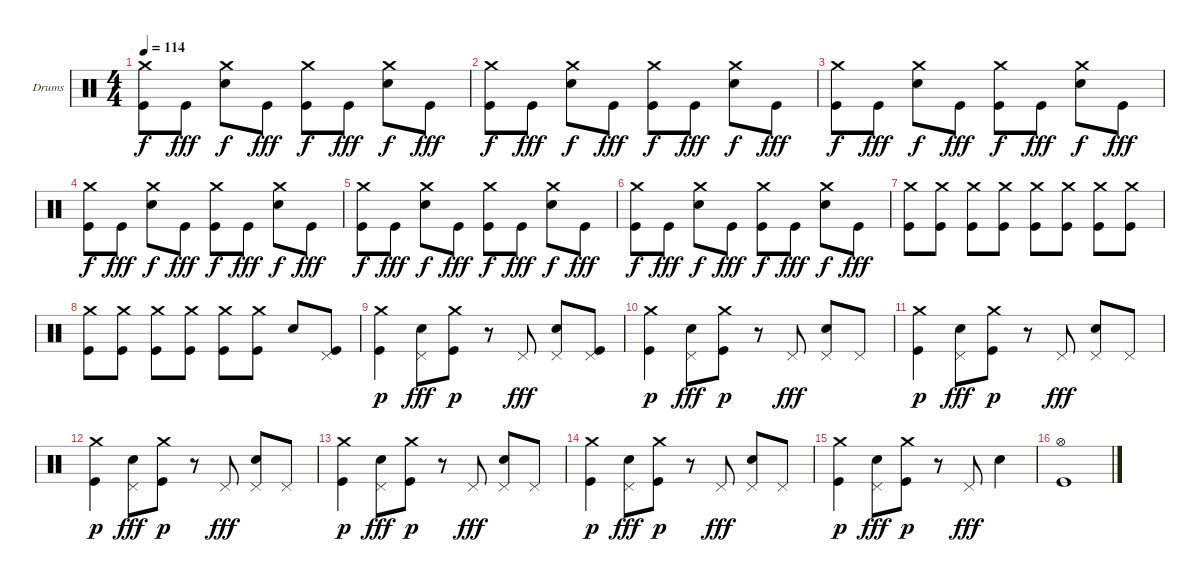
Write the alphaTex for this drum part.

\defaultSystemsLayout 4
\bracketExtendMode groupsimilarinstruments
\firstSystemTrackNameOrientation horizontal
\otherSystemsTrackNameOrientation horizontal
\track ("Drumkit" "Drums") {instrument percussion}
\staff {score}
\articulation defaults
\ts (4 4)
\tempo 114
\clef neutral
\scale
0.973518
\ks c
("Crash medium (hit)" "Kick (hit)").8{dy f} "Kick (hit)".8{dy fff} ("Crash medium (hit)" "Snare (hit) 2").8{dy f} "Kick (hit)".8{dy fff} ("Crash medium (hit)" "Kick (hit)").8{dy f} "Kick (hit)".8{dy fff} ("Crash medium (hit)" "Snare (hit) 2").8{dy f} "Kick (hit)".8{dy fff} |
\scale
1.05296 ("Crash medium (hit)" "Kick (hit)").8{dy f} "Kick (hit)".8{dy fff} ("Crash medium (hit)" "Snare (hit) 2").8{dy f} "Kick (hit)".8{dy fff} ("Crash medium (hit)" "Kick (hit)").8{dy f} "Kick (hit)".8{dy fff} ("Crash medium (hit)" "Snare (hit) 2").8{dy f} "Kick (hit)".8{dy fff} |
\scale
0.973518 ("Crash medium (hit)" "Kick (hit)").8{dy f} "Kick (hit)".8{dy fff} ("Crash medium (hit)" "Snare (hit) 2").8{dy f} "Kick (hit)".8{dy fff} ("Crash medium (hit)" "Kick (hit)").8{dy f} "Kick (hit)".8{dy fff} ("Crash medium (hit)" "Snare (hit) 2").8{dy f} "Kick (hit)".8{dy fff} |
\scale
0.973518 ("Crash medium (hit)" "Kick (hit)").8{dy f} "Kick (hit)".8{dy fff} ("Crash medium (hit)" "Snare (hit) 2").8{dy f} "Kick (hit)".8{dy fff} ("Crash medium (hit)" "Kick (hit)").8{dy f} "Kick (hit)".8{dy fff} ("Crash medium (hit)" "Snare (hit) 2").8{dy f} "Kick (hit)".8{dy fff} |
\scale
1.05296 ("Crash medium (hit)" "Kick (hit)").8{dy f} "Kick (hit)".8{dy fff} ("Crash medium (hit)" "Snare (hit) 2").8{dy f} "Kick (hit)".8{dy fff} ("Crash medium (hit)" "Kick (hit)").8{dy f} "Kick (hit)".8{dy fff} ("Crash medium (hit)" "Snare (hit) 2").8{dy f} "Kick (hit)".8{dy fff} |
\scale
0.973518 ("Crash medium (hit)" "Kick (hit)").8{dy f} "Kick (hit)".8{dy fff} ("Crash medium (hit)" "Snare (hit) 2").8{dy f} "Kick (hit)".8{dy fff} ("Crash medium (hit)" "Kick (hit)").8{dy f} "Kick (hit)".8{dy fff} ("Crash medium (hit)" "Snare (hit) 2").8{dy f} "Kick (hit)".8{dy fff} |
\scale
0.973518 ("Crash medium (hit)" "Kick (hit)").8 ("Crash medium (hit)" "Kick (hit)").8 ("Crash medium (hit)" "Kick (hit)").8 ("Crash medium (hit)" "Kick (hit)").8 ("Crash medium (hit)" "Kick (hit)").8 ("Crash medium (hit)" "Kick (hit)").8 ("Crash medium (hit)" "Kick (hit)").8 ("Crash medium (hit)" "Kick (hit)").8 |
\scale
1.05296 ("Crash medium (hit)" "Kick (hit)").8 ("Crash medium (hit)" "Kick (hit)").8 ("Crash medium (hit)" "Kick (hit)").8 ("Crash medium (hit)" "Kick (hit)").8 ("Crash medium (hit)" "Kick (hit)").8 ("Crash medium (hit)" "Kick (hit)").8 "Snare (hit) 2".8 ("Pedal Hi-Hat (hit)" "Kick (hit)").8 |
\scale
0.973518 ("Crash medium (hit)" "Kick (hit)").4{dy p} ("Pedal Hi-Hat (hit)" "Snare (hit) 2").8{dy fff} ("Crash medium (hit)" "Kick (hit)").8{dy p} r.8 "Pedal Hi-Hat (hit)".8{dy fff} ("Pedal Hi-Hat (hit)" "Snare (hit) 2").8 ("Pedal Hi-Hat (hit)" "Kick (hit)").8 |
\scale
0.973518 ("Crash medium (hit)" "Kick (hit)").4{dy p} ("Pedal Hi-Hat (hit)" "Snare (hit) 2").8{dy fff} ("Crash medium (hit)" "Kick (hit)").8{dy p} r.8 "Pedal Hi-Hat (hit)".8{dy fff} ("Pedal Hi-Hat (hit)" "Snare (hit) 2").8 "Pedal Hi-Hat (hit)".8 |
\scale
1.05296 ("Crash medium (hit)" "Kick (hit)").4{dy p} ("Pedal Hi-Hat (hit)" "Snare (hit) 2").8{dy fff} ("Crash medium (hit)" "Kick (hit)").8{dy p} r.8 "Pedal Hi-Hat (hit)".8{dy fff} ("Pedal Hi-Hat (hit)" "Snare (hit) 2").8 "Pedal Hi-Hat (hit)".8 |
\scale
0.973518 ("Crash medium (hit)" "Kick (hit)").4{dy p} ("Pedal Hi-Hat (hit)" "Snare (hit) 2").8{dy fff} ("Crash medium (hit)" "Kick (hit)").8{dy p} r.8 "Pedal Hi-Hat (hit)".8{dy fff} ("Pedal Hi-Hat (hit)" "Snare (hit) 2").8 "Pedal Hi-Hat (hit)".8 |
\scale
0.973518 ("Crash medium (hit)" "Kick (hit)").4{dy p} ("Pedal Hi-Hat (hit)" "Snare (hit) 2").8{dy fff} ("Crash medium (hit)" "Kick (hit)").8{dy p} r.8 "Pedal Hi-Hat (hit)".8{dy fff} ("Pedal Hi-Hat (hit)" "Snare (hit) 2").8 "Pedal Hi-Hat (hit)".8 |
\scale
1.05296 ("Crash medium (hit)" "Kick (hit)").4{dy p} ("Pedal Hi-Hat (hit)" "Snare (hit) 2").8{dy fff} ("Crash medium (hit)" "Kick (hit)").8{dy p} r.8 "Pedal Hi-Hat (hit)".8{dy fff} ("Pedal Hi-Hat (hit)" "Snare (hit) 2").8 "Pedal Hi-Hat (hit)".8 |
\scale
0.973518 ("Crash medium (hit)" "Kick (hit)").4{dy p} ("Pedal Hi-Hat (hit)" "Snare (hit) 2").8{dy fff} ("Crash medium (hit)" "Kick (hit)").8{dy p} r.8 "Pedal Hi-Hat (hit)".8{dy fff} "Snare (hit) 2".4 |
\scale
0.973518 ("Hi-Hat (open)" "Kick (hit)").1
